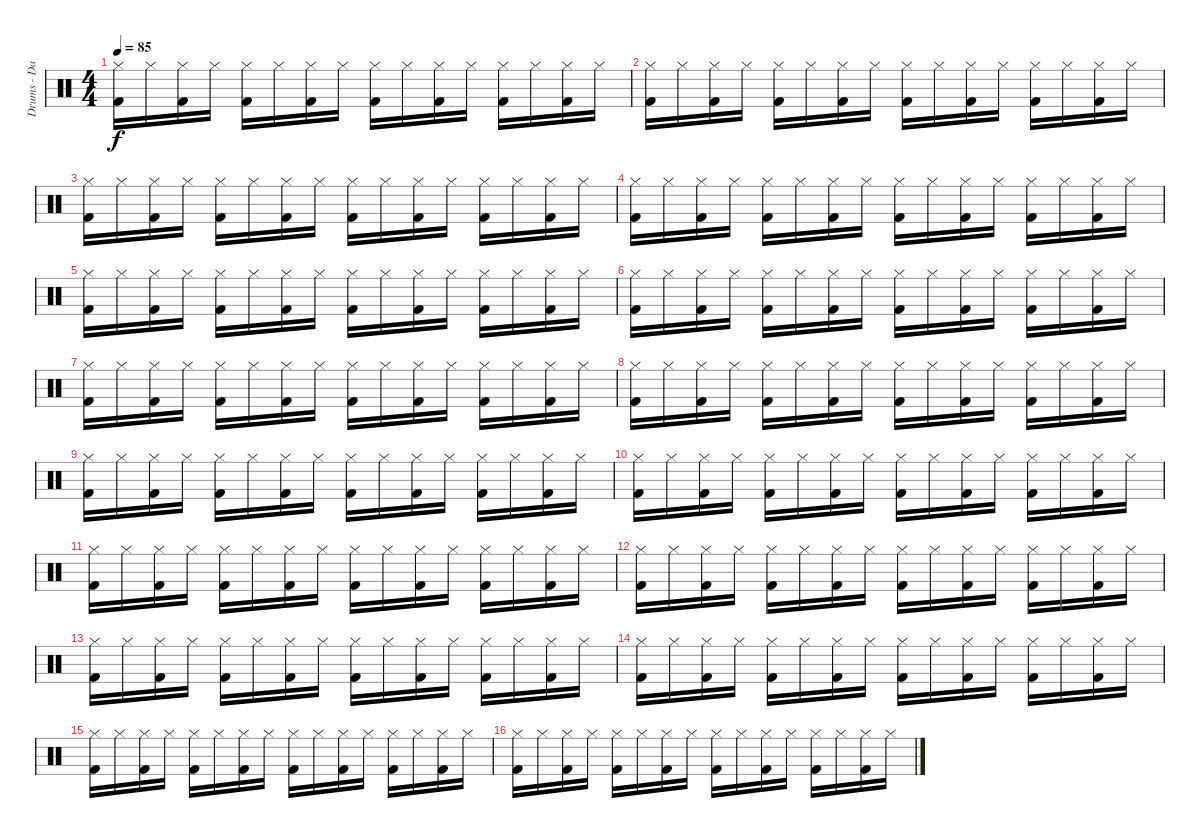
\track ("Drums - Daniel Zimmermann" "Drums - Da") {instrument percussion}
\staff {score}
\articulation defaults
\ts (4 4)
\tempo 85
\clef neutral
\ks c
("Hi-Hat (closed)" "Kick (hit) 2").16{dy f} "Hi-Hat (closed)".16 ("Hi-Hat (closed)" "Kick (hit) 2").16 "Hi-Hat (closed)".16 ("Hi-Hat (closed)" "Kick (hit) 2").16 "Hi-Hat (closed)".16 ("Hi-Hat (closed)" "Kick (hit) 2").16 "Hi-Hat (closed)".16 ("Hi-Hat (closed)" "Kick (hit) 2").16 "Hi-Hat (closed)".16 ("Hi-Hat (closed)" "Kick (hit) 2").16 "Hi-Hat (closed)".16 ("Hi-Hat (closed)" "Kick (hit) 2").16 "Hi-Hat (closed)".16 ("Hi-Hat (closed)" "Kick (hit) 2").16 "Hi-Hat (closed)".16 |
("Hi-Hat (closed)" "Kick (hit) 2").16 "Hi-Hat (closed)".16 ("Hi-Hat (closed)" "Kick (hit) 2").16 "Hi-Hat (closed)".16 ("Hi-Hat (closed)" "Kick (hit) 2").16 "Hi-Hat (closed)".16 ("Hi-Hat (closed)" "Kick (hit) 2").16 "Hi-Hat (closed)".16 ("Hi-Hat (closed)" "Kick (hit) 2").16 "Hi-Hat (closed)".16 ("Hi-Hat (closed)" "Kick (hit) 2").16 "Hi-Hat (closed)".16 ("Hi-Hat (closed)" "Kick (hit) 2").16 "Hi-Hat (closed)".16 ("Hi-Hat (closed)" "Kick (hit) 2").16 "Hi-Hat (closed)".16 |
("Hi-Hat (closed)" "Kick (hit) 2").16 "Hi-Hat (closed)".16 ("Hi-Hat (closed)" "Kick (hit) 2").16 "Hi-Hat (closed)".16 ("Hi-Hat (closed)" "Kick (hit) 2").16 "Hi-Hat (closed)".16 ("Hi-Hat (closed)" "Kick (hit) 2").16 "Hi-Hat (closed)".16 ("Hi-Hat (closed)" "Kick (hit) 2").16 "Hi-Hat (closed)".16 ("Hi-Hat (closed)" "Kick (hit) 2").16 "Hi-Hat (closed)".16 ("Hi-Hat (closed)" "Kick (hit) 2").16 "Hi-Hat (closed)".16 ("Hi-Hat (closed)" "Kick (hit) 2").16 "Hi-Hat (closed)".16 |
("Hi-Hat (closed)" "Kick (hit) 2").16 "Hi-Hat (closed)".16 ("Hi-Hat (closed)" "Kick (hit) 2").16 "Hi-Hat (closed)".16 ("Hi-Hat (closed)" "Kick (hit) 2").16 "Hi-Hat (closed)".16 ("Hi-Hat (closed)" "Kick (hit) 2").16 "Hi-Hat (closed)".16 ("Hi-Hat (closed)" "Kick (hit) 2").16 "Hi-Hat (closed)".16 ("Hi-Hat (closed)" "Kick (hit) 2").16 "Hi-Hat (closed)".16 ("Hi-Hat (closed)" "Kick (hit) 2").16 "Hi-Hat (closed)".16 ("Hi-Hat (closed)" "Kick (hit) 2").16 "Hi-Hat (closed)".16 |
("Hi-Hat (closed)" "Kick (hit) 2").16 "Hi-Hat (closed)".16 ("Hi-Hat (closed)" "Kick (hit) 2").16 "Hi-Hat (closed)".16 ("Hi-Hat (closed)" "Kick (hit) 2").16 "Hi-Hat (closed)".16 ("Hi-Hat (closed)" "Kick (hit) 2").16 "Hi-Hat (closed)".16 ("Hi-Hat (closed)" "Kick (hit) 2").16 "Hi-Hat (closed)".16 ("Hi-Hat (closed)" "Kick (hit) 2").16 "Hi-Hat (closed)".16 ("Hi-Hat (closed)" "Kick (hit) 2").16 "Hi-Hat (closed)".16 ("Hi-Hat (closed)" "Kick (hit) 2").16 "Hi-Hat (closed)".16 |
("Hi-Hat (closed)" "Kick (hit) 2").16 "Hi-Hat (closed)".16 ("Hi-Hat (closed)" "Kick (hit) 2").16 "Hi-Hat (closed)".16 ("Hi-Hat (closed)" "Kick (hit) 2").16 "Hi-Hat (closed)".16 ("Hi-Hat (closed)" "Kick (hit) 2").16 "Hi-Hat (closed)".16 ("Hi-Hat (closed)" "Kick (hit) 2").16 "Hi-Hat (closed)".16 ("Hi-Hat (closed)" "Kick (hit) 2").16 "Hi-Hat (closed)".16 ("Hi-Hat (closed)" "Kick (hit) 2").16 "Hi-Hat (closed)".16 ("Hi-Hat (closed)" "Kick (hit) 2").16 "Hi-Hat (closed)".16 |
("Hi-Hat (closed)" "Kick (hit) 2").16 "Hi-Hat (closed)".16 ("Hi-Hat (closed)" "Kick (hit) 2").16 "Hi-Hat (closed)".16 ("Hi-Hat (closed)" "Kick (hit) 2").16 "Hi-Hat (closed)".16 ("Hi-Hat (closed)" "Kick (hit) 2").16 "Hi-Hat (closed)".16 ("Hi-Hat (closed)" "Kick (hit) 2").16 "Hi-Hat (closed)".16 ("Hi-Hat (closed)" "Kick (hit) 2").16 "Hi-Hat (closed)".16 ("Hi-Hat (closed)" "Kick (hit) 2").16 "Hi-Hat (closed)".16 ("Hi-Hat (closed)" "Kick (hit) 2").16 "Hi-Hat (closed)".16 |
("Hi-Hat (closed)" "Kick (hit) 2").16 "Hi-Hat (closed)".16 ("Hi-Hat (closed)" "Kick (hit) 2").16 "Hi-Hat (closed)".16 ("Hi-Hat (closed)" "Kick (hit) 2").16 "Hi-Hat (closed)".16 ("Hi-Hat (closed)" "Kick (hit) 2").16 "Hi-Hat (closed)".16 ("Hi-Hat (closed)" "Kick (hit) 2").16 "Hi-Hat (closed)".16 ("Hi-Hat (closed)" "Kick (hit) 2").16 "Hi-Hat (closed)".16 ("Hi-Hat (closed)" "Kick (hit) 2").16 "Hi-Hat (closed)".16 ("Hi-Hat (closed)" "Kick (hit) 2").16 "Hi-Hat (closed)".16 |
("Hi-Hat (closed)" "Kick (hit) 2").16 "Hi-Hat (closed)".16 ("Hi-Hat (closed)" "Kick (hit) 2").16 "Hi-Hat (closed)".16 ("Hi-Hat (closed)" "Kick (hit) 2").16 "Hi-Hat (closed)".16 ("Hi-Hat (closed)" "Kick (hit) 2").16 "Hi-Hat (closed)".16 ("Hi-Hat (closed)" "Kick (hit) 2").16 "Hi-Hat (closed)".16 ("Hi-Hat (closed)" "Kick (hit) 2").16 "Hi-Hat (closed)".16 ("Hi-Hat (closed)" "Kick (hit) 2").16 "Hi-Hat (closed)".16 ("Hi-Hat (closed)" "Kick (hit) 2").16 "Hi-Hat (closed)".16 |
("Hi-Hat (closed)" "Kick (hit) 2").16 "Hi-Hat (closed)".16 ("Hi-Hat (closed)" "Kick (hit) 2").16 "Hi-Hat (closed)".16 ("Hi-Hat (closed)" "Kick (hit) 2").16 "Hi-Hat (closed)".16 ("Hi-Hat (closed)" "Kick (hit) 2").16 "Hi-Hat (closed)".16 ("Hi-Hat (closed)" "Kick (hit) 2").16 "Hi-Hat (closed)".16 ("Hi-Hat (closed)" "Kick (hit) 2").16 "Hi-Hat (closed)".16 ("Hi-Hat (closed)" "Kick (hit) 2").16 "Hi-Hat (closed)".16 ("Hi-Hat (closed)" "Kick (hit) 2").16 "Hi-Hat (closed)".16 |
("Hi-Hat (closed)" "Kick (hit) 2").16 "Hi-Hat (closed)".16 ("Hi-Hat (closed)" "Kick (hit) 2").16 "Hi-Hat (closed)".16 ("Hi-Hat (closed)" "Kick (hit) 2").16 "Hi-Hat (closed)".16 ("Hi-Hat (closed)" "Kick (hit) 2").16 "Hi-Hat (closed)".16 ("Hi-Hat (closed)" "Kick (hit) 2").16 "Hi-Hat (closed)".16 ("Hi-Hat (closed)" "Kick (hit) 2").16 "Hi-Hat (closed)".16 ("Hi-Hat (closed)" "Kick (hit) 2").16 "Hi-Hat (closed)".16 ("Hi-Hat (closed)" "Kick (hit) 2").16 "Hi-Hat (closed)".16 |
("Hi-Hat (closed)" "Kick (hit) 2").16 "Hi-Hat (closed)".16 ("Hi-Hat (closed)" "Kick (hit) 2").16 "Hi-Hat (closed)".16 ("Hi-Hat (closed)" "Kick (hit) 2").16 "Hi-Hat (closed)".16 ("Hi-Hat (closed)" "Kick (hit) 2").16 "Hi-Hat (closed)".16 ("Hi-Hat (closed)" "Kick (hit) 2").16 "Hi-Hat (closed)".16 ("Hi-Hat (closed)" "Kick (hit) 2").16 "Hi-Hat (closed)".16 ("Hi-Hat (closed)" "Kick (hit) 2").16 "Hi-Hat (closed)".16 ("Hi-Hat (closed)" "Kick (hit) 2").16 "Hi-Hat (closed)".16 |
("Hi-Hat (closed)" "Kick (hit) 2").16 "Hi-Hat (closed)".16 ("Hi-Hat (closed)" "Kick (hit) 2").16 "Hi-Hat (closed)".16 ("Hi-Hat (closed)" "Kick (hit) 2").16 "Hi-Hat (closed)".16 ("Hi-Hat (closed)" "Kick (hit) 2").16 "Hi-Hat (closed)".16 ("Hi-Hat (closed)" "Kick (hit) 2").16 "Hi-Hat (closed)".16 ("Hi-Hat (closed)" "Kick (hit) 2").16 "Hi-Hat (closed)".16 ("Hi-Hat (closed)" "Kick (hit) 2").16 "Hi-Hat (closed)".16 ("Hi-Hat (closed)" "Kick (hit) 2").16 "Hi-Hat (closed)".16 |
("Hi-Hat (closed)" "Kick (hit) 2").16 "Hi-Hat (closed)".16 ("Hi-Hat (closed)" "Kick (hit) 2").16 "Hi-Hat (closed)".16 ("Hi-Hat (closed)" "Kick (hit) 2").16 "Hi-Hat (closed)".16 ("Hi-Hat (closed)" "Kick (hit) 2").16 "Hi-Hat (closed)".16 ("Hi-Hat (closed)" "Kick (hit) 2").16 "Hi-Hat (closed)".16 ("Hi-Hat (closed)" "Kick (hit) 2").16 "Hi-Hat (closed)".16 ("Hi-Hat (closed)" "Kick (hit) 2").16 "Hi-Hat (closed)".16 ("Hi-Hat (closed)" "Kick (hit) 2").16 "Hi-Hat (closed)".16 |
("Hi-Hat (closed)" "Kick (hit) 2").16 "Hi-Hat (closed)".16 ("Hi-Hat (closed)" "Kick (hit) 2").16 "Hi-Hat (closed)".16 ("Hi-Hat (closed)" "Kick (hit) 2").16 "Hi-Hat (closed)".16 ("Hi-Hat (closed)" "Kick (hit) 2").16 "Hi-Hat (closed)".16 ("Hi-Hat (closed)" "Kick (hit) 2").16 "Hi-Hat (closed)".16 ("Hi-Hat (closed)" "Kick (hit) 2").16 "Hi-Hat (closed)".16 ("Hi-Hat (closed)" "Kick (hit) 2").16 "Hi-Hat (closed)".16 ("Hi-Hat (closed)" "Kick (hit) 2").16 "Hi-Hat (closed)".16 |
("Hi-Hat (closed)" "Kick (hit) 2").16 "Hi-Hat (closed)".16 ("Hi-Hat (closed)" "Kick (hit) 2").16 "Hi-Hat (closed)".16 ("Hi-Hat (closed)" "Kick (hit) 2").16 "Hi-Hat (closed)".16 ("Hi-Hat (closed)" "Kick (hit) 2").16 "Hi-Hat (closed)".16 ("Hi-Hat (closed)" "Kick (hit) 2").16 "Hi-Hat (closed)".16 ("Hi-Hat (closed)" "Kick (hit) 2").16 "Hi-Hat (closed)".16 ("Hi-Hat (closed)" "Kick (hit) 2").16 "Hi-Hat (closed)".16 ("Hi-Hat (closed)" "Kick (hit) 2").16 "Hi-Hat (closed)".16
